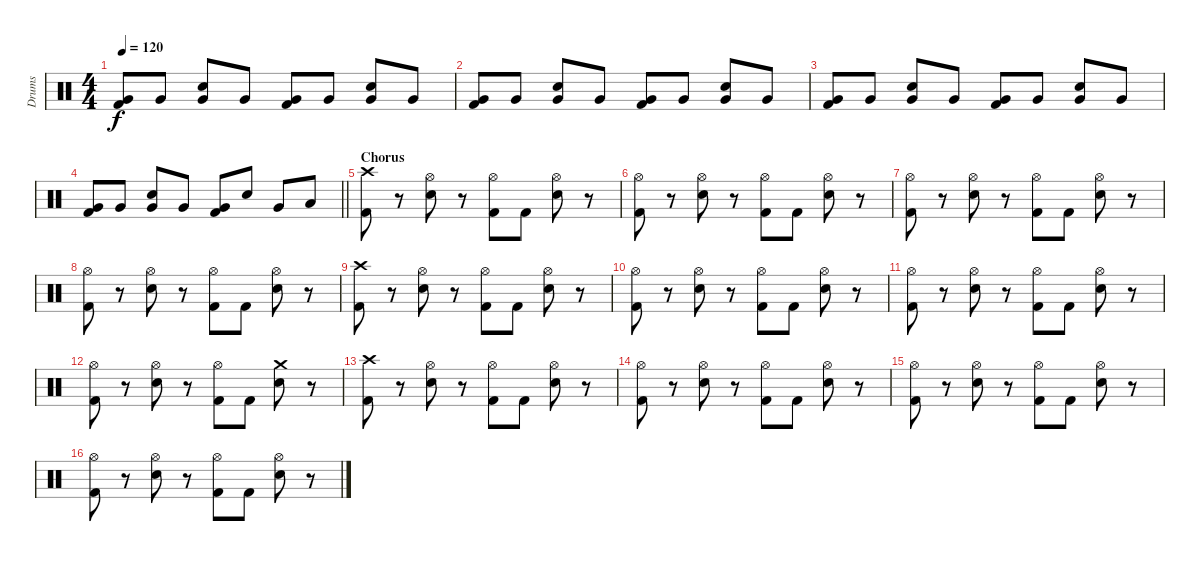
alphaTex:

\track ("Drums" "Drums") {instrument percussion}
\staff {score}
\articulation defaults
\ts (4 4)
\tempo 120
\clef neutral
\ks c
("Very Low Tom (hit)" "Kick (hit) 2").8{dy f} "Very Low Tom (hit)".8 ("Snare (hit) 2" "Very Low Tom (hit)").8 "Very Low Tom (hit)".8 ("Very Low Tom (hit)" "Kick (hit) 2").8 "Very Low Tom (hit)".8 ("Snare (hit) 2" "Very Low Tom (hit)").8 "Very Low Tom (hit)".8 |
("Very Low Tom (hit)" "Kick (hit) 2").8 "Very Low Tom (hit)".8 ("Snare (hit) 2" "Very Low Tom (hit)").8 "Very Low Tom (hit)".8 ("Very Low Tom (hit)" "Kick (hit) 2").8 "Very Low Tom (hit)".8 ("Snare (hit) 2" "Very Low Tom (hit)").8 "Very Low Tom (hit)".8 |
("Very Low Tom (hit)" "Kick (hit) 2").8 "Very Low Tom (hit)".8 ("Snare (hit) 2" "Very Low Tom (hit)").8 "Very Low Tom (hit)".8 ("Very Low Tom (hit)" "Kick (hit) 2").8 "Very Low Tom (hit)".8 ("Snare (hit) 2" "Very Low Tom (hit)").8 "Very Low Tom (hit)".8 |
\barLineRight lightlight
("Very Low Tom (hit)" "Kick (hit) 2").8 "Very Low Tom (hit)".8 ("Snare (hit) 2" "Very Low Tom (hit)").8 "Very Low Tom (hit)".8 ("Very Low Tom (hit)" "Kick (hit) 2").8 "Snare (hit) 2".8 "Very Low Tom (hit)".8 "Low Floor Tom (hit)".8 |
\section ("" "Chorus")
("Crash high (hit)" "Kick (hit) 2").8 r.8 ("Snare (hit) 2" "Hi-Hat (open)").8 r.8 ("Hi-Hat (open)" "Kick (hit) 2").8 "Kick (hit) 2".8 ("Snare (hit) 2" "Hi-Hat (open)").8 r.8 |
("Hi-Hat (open)" "Kick (hit) 2").8 r.8 ("Snare (hit) 2" "Hi-Hat (open)").8 r.8 ("Hi-Hat (open)" "Kick (hit) 2").8 "Kick (hit) 2".8 ("Snare (hit) 2" "Hi-Hat (open)").8 r.8 |
("Hi-Hat (open)" "Kick (hit) 2").8 r.8 ("Snare (hit) 2" "Hi-Hat (open)").8 r.8 ("Hi-Hat (open)" "Kick (hit) 2").8 "Kick (hit) 2".8 ("Snare (hit) 2" "Hi-Hat (open)").8 r.8 |
("Hi-Hat (open)" "Kick (hit) 2").8 r.8 ("Snare (hit) 2" "Hi-Hat (open)").8 r.8 ("Hi-Hat (open)" "Kick (hit) 2").8 "Kick (hit) 2".8 ("Snare (hit) 2" "Hi-Hat (open)").8 r.8 |
("Crash high (hit)" "Kick (hit) 2").8 r.8 ("Snare (hit) 2" "Hi-Hat (open)").8 r.8 ("Hi-Hat (open)" "Kick (hit) 2").8 "Kick (hit) 2".8 ("Snare (hit) 2" "Hi-Hat (open)").8 r.8 |
("Hi-Hat (open)" "Kick (hit) 2").8 r.8 ("Snare (hit) 2" "Hi-Hat (open)").8 r.8 ("Hi-Hat (open)" "Kick (hit) 2").8 "Kick (hit) 2".8 ("Snare (hit) 2" "Hi-Hat (open)").8 r.8 |
("Hi-Hat (open)" "Kick (hit) 2").8 r.8 ("Snare (hit) 2" "Hi-Hat (open)").8 r.8 ("Hi-Hat (open)" "Kick (hit) 2").8 "Kick (hit) 2".8 ("Snare (hit) 2" "Hi-Hat (open)").8 r.8 |
("Hi-Hat (open)" "Kick (hit) 2").8 r.8 ("Snare (hit) 2" "Hi-Hat (open)").8 r.8 ("Hi-Hat (open)" "Kick (hit) 2").8 "Kick (hit) 2".8 ("Crash medium (hit)" "Snare (hit) 2").8 r.8 |
("Crash high (hit)" "Kick (hit) 2").8 r.8 ("Snare (hit) 2" "Hi-Hat (open)").8 r.8 ("Hi-Hat (open)" "Kick (hit) 2").8 "Kick (hit) 2".8 ("Snare (hit) 2" "Hi-Hat (open)").8 r.8 |
("Hi-Hat (open)" "Kick (hit) 2").8 r.8 ("Snare (hit) 2" "Hi-Hat (open)").8 r.8 ("Hi-Hat (open)" "Kick (hit) 2").8 "Kick (hit) 2".8 ("Snare (hit) 2" "Hi-Hat (open)").8 r.8 |
("Hi-Hat (open)" "Kick (hit) 2").8 r.8 ("Snare (hit) 2" "Hi-Hat (open)").8 r.8 ("Hi-Hat (open)" "Kick (hit) 2").8 "Kick (hit) 2".8 ("Snare (hit) 2" "Hi-Hat (open)").8 r.8 |
("Hi-Hat (open)" "Kick (hit) 2").8 r.8 ("Snare (hit) 2" "Hi-Hat (open)").8 r.8 ("Hi-Hat (open)" "Kick (hit) 2").8 "Kick (hit) 2".8 ("Snare (hit) 2" "Hi-Hat (open)").8 r.8
